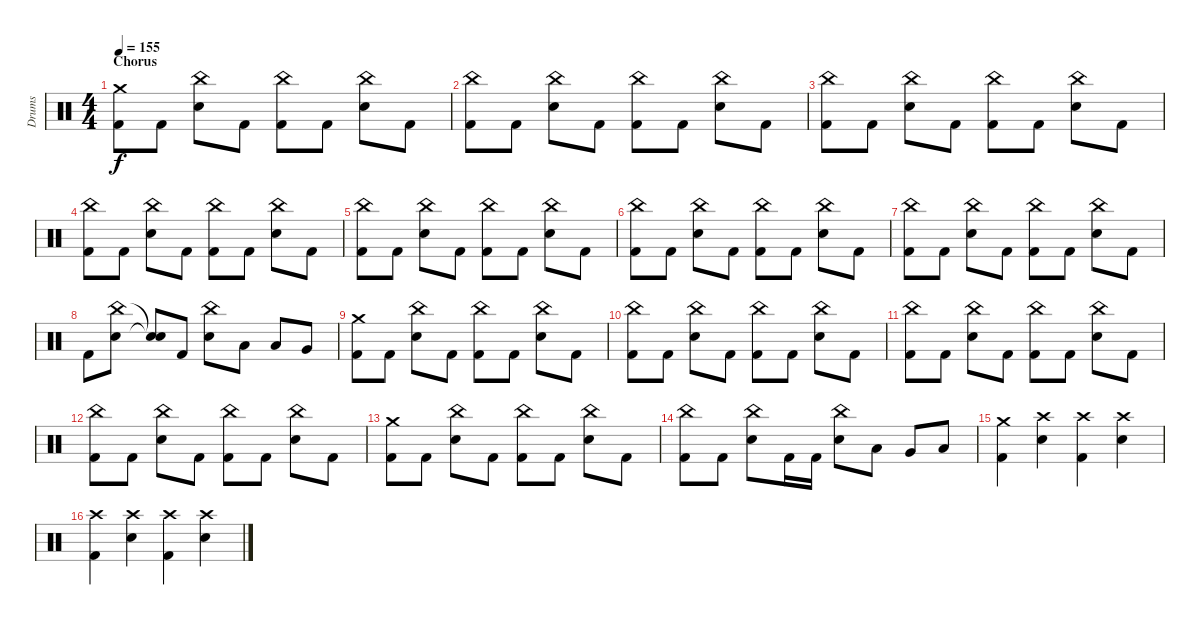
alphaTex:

\track ("Drums" "Drums") {instrument percussion}
\staff {score}
\articulation defaults
\ts (4 4)
\section ("" "Chorus")
\tempo 155
\clef neutral
\ks c
("Kick (hit) 2" "Crash medium (hit)").8{dy f} "Kick (hit) 2".8 ("China (hit)" "Electric Snare (hit)").8 "Kick (hit) 2".8 ("Kick (hit) 2" "China (hit)").8 "Kick (hit) 2".8 ("China (hit)" "Electric Snare (hit)").8 "Kick (hit) 2".8 |
("Kick (hit) 2" "China (hit)").8 "Kick (hit) 2".8 ("China (hit)" "Electric Snare (hit)").8 "Kick (hit) 2".8 ("Kick (hit) 2" "China (hit)").8 "Kick (hit) 2".8 ("China (hit)" "Electric Snare (hit)").8 "Kick (hit) 2".8 |
("Kick (hit) 2" "China (hit)").8 "Kick (hit) 2".8 ("China (hit)" "Electric Snare (hit)").8 "Kick (hit) 2".8 ("Kick (hit) 2" "China (hit)").8 "Kick (hit) 2".8 ("China (hit)" "Electric Snare (hit)").8 "Kick (hit) 2".8 |
("Kick (hit) 2" "China (hit)").8 "Kick (hit) 2".8 ("China (hit)" "Electric Snare (hit)").8 "Kick (hit) 2".8 ("Kick (hit) 2" "China (hit)").8 "Kick (hit) 2".8 ("China (hit)" "Electric Snare (hit)").8 "Kick (hit) 2".8 |
("Kick (hit) 2" "China (hit)").8 "Kick (hit) 2".8 ("China (hit)" "Electric Snare (hit)").8 "Kick (hit) 2".8 ("Kick (hit) 2" "China (hit)").8 "Kick (hit) 2".8 ("China (hit)" "Electric Snare (hit)").8 "Kick (hit) 2".8 |
("Kick (hit) 2" "China (hit)").8 "Kick (hit) 2".8 ("China (hit)" "Electric Snare (hit)").8 "Kick (hit) 2".8 ("Kick (hit) 2" "China (hit)").8 "Kick (hit) 2".8 ("China (hit)" "Electric Snare (hit)").8 "Kick (hit) 2".8 |
("Kick (hit) 2" "China (hit)").8 "Kick (hit) 2".8 ("China (hit)" "Electric Snare (hit)").8 "Kick (hit) 2".8 ("Kick (hit) 2" "China (hit)").8 "Kick (hit) 2".8 ("China (hit)" "Electric Snare (hit)").8 "Kick (hit) 2".8 |
"Kick (hit) 2".8 ("China (hit)" "Electric Snare (hit)").8 ("Snare (hit)"{t} "Snare (hit)"{t}).8 "Kick (hit) 2".8 ("China (hit)" "Electric Snare (hit)").8 "Low Tom (hit)".8 "Low Tom (hit)".8 "Very Low Tom (hit)".8 |
("Kick (hit) 2" "Crash medium (hit)").8 "Kick (hit) 2".8 ("China (hit)" "Electric Snare (hit)").8 "Kick (hit) 2".8 ("Kick (hit) 2" "China (hit)").8 "Kick (hit) 2".8 ("China (hit)" "Electric Snare (hit)").8 "Kick (hit) 2".8 |
("Kick (hit) 2" "China (hit)").8 "Kick (hit) 2".8 ("China (hit)" "Electric Snare (hit)").8 "Kick (hit) 2".8 ("Kick (hit) 2" "China (hit)").8 "Kick (hit) 2".8 ("China (hit)" "Electric Snare (hit)").8 "Kick (hit) 2".8 |
("Kick (hit) 2" "China (hit)").8 "Kick (hit) 2".8 ("China (hit)" "Electric Snare (hit)").8 "Kick (hit) 2".8 ("Kick (hit) 2" "China (hit)").8 "Kick (hit) 2".8 ("China (hit)" "Electric Snare (hit)").8 "Kick (hit) 2".8 |
("Kick (hit) 2" "China (hit)").8 "Kick (hit) 2".8 ("China (hit)" "Electric Snare (hit)").8 "Kick (hit) 2".8 ("Kick (hit) 2" "China (hit)").8 "Kick (hit) 2".8 ("China (hit)" "Electric Snare (hit)").8 "Kick (hit) 2".8 |
("Kick (hit) 2" "Crash medium (hit)").8 "Kick (hit) 2".8 ("China (hit)" "Electric Snare (hit)").8 "Kick (hit) 2".8 ("Kick (hit) 2" "China (hit)").8 "Kick (hit) 2".8 ("China (hit)" "Electric Snare (hit)").8 "Kick (hit) 2".8 |
("Kick (hit) 2" "China (hit)").8 "Kick (hit) 2".8 ("China (hit)" "Electric Snare (hit)").8 "Kick (hit) 2".16 "Kick (hit) 2".16 ("China (hit)" "Electric Snare (hit)").8 "Low Tom (hit)".8 "Very Low Tom (hit)".8 "Low Floor Tom (hit)".8 |
("Kick (hit) 2" "Crash medium (hit)").4 ("Crash high (hit)" "Electric Snare (hit)").4 ("Kick (hit) 2" "Crash high (hit)").4 ("Crash high (hit)" "Electric Snare (hit)").4 |
("Kick (hit) 2" "Crash high (hit)").4 ("Crash high (hit)" "Electric Snare (hit)").4 ("Kick (hit) 2" "Crash high (hit)").4 ("Crash high (hit)" "Electric Snare (hit)").4
